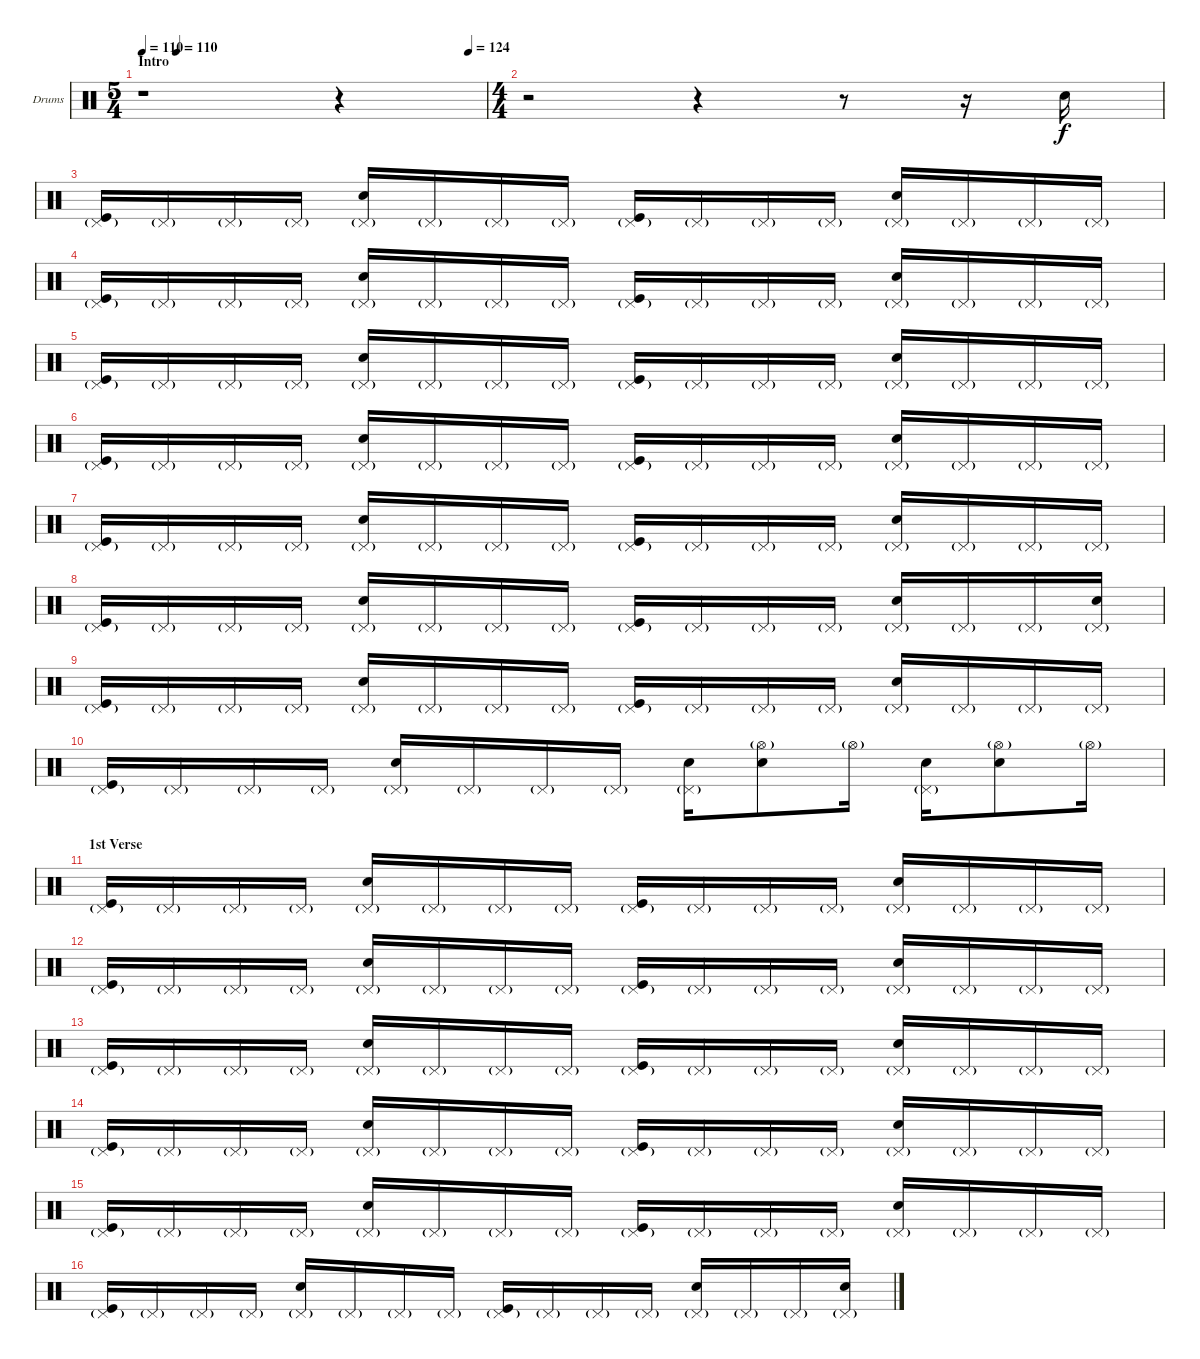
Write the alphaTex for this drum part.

\bracketExtendMode groupsimilarinstruments
\firstSystemTrackNameOrientation horizontal
\otherSystemsTrackNameOrientation horizontal
\track ("Drumkit" "Drums") {instrument percussion}
\staff {score}
\articulation defaults
\ts (5 4)
\section ("" "Intro")
\tempo 110
\tempo (110 0.1)
\tempo (124 0.95)
\clef neutral
\ks c
r.1{dy f} r.4 |
\ts (4 4)
r.2 r.4 r.8 r.16 "Snare (hit) 2".16 |
("Kick (hit)" "Pedal Hi-Hat (hit)"{g}).16 "Pedal Hi-Hat (hit)"{g}.16 "Pedal Hi-Hat (hit)"{g}.16 "Pedal Hi-Hat (hit)"{g}.16 ("Snare (hit) 2" "Pedal Hi-Hat (hit)"{g}).16 "Pedal Hi-Hat (hit)"{g}.16 "Pedal Hi-Hat (hit)"{g}.16 "Pedal Hi-Hat (hit)"{g}.16 ("Kick (hit)" "Pedal Hi-Hat (hit)"{g}).16 "Pedal Hi-Hat (hit)"{g}.16 "Pedal Hi-Hat (hit)"{g}.16 "Pedal Hi-Hat (hit)"{g}.16 ("Snare (hit) 2" "Pedal Hi-Hat (hit)"{g}).16 "Pedal Hi-Hat (hit)"{g}.16 "Pedal Hi-Hat (hit)"{g}.16 "Pedal Hi-Hat (hit)"{g}.16 |
("Kick (hit)" "Pedal Hi-Hat (hit)"{g}).16 "Pedal Hi-Hat (hit)"{g}.16 "Pedal Hi-Hat (hit)"{g}.16 "Pedal Hi-Hat (hit)"{g}.16 ("Snare (hit) 2" "Pedal Hi-Hat (hit)"{g}).16 "Pedal Hi-Hat (hit)"{g}.16 "Pedal Hi-Hat (hit)"{g}.16 "Pedal Hi-Hat (hit)"{g}.16 ("Kick (hit)" "Pedal Hi-Hat (hit)"{g}).16 "Pedal Hi-Hat (hit)"{g}.16 "Pedal Hi-Hat (hit)"{g}.16 "Pedal Hi-Hat (hit)"{g}.16 ("Snare (hit) 2" "Pedal Hi-Hat (hit)"{g}).16 "Pedal Hi-Hat (hit)"{g}.16 "Pedal Hi-Hat (hit)"{g}.16 "Pedal Hi-Hat (hit)"{g}.16 |
("Kick (hit)" "Pedal Hi-Hat (hit)"{g}).16 "Pedal Hi-Hat (hit)"{g}.16 "Pedal Hi-Hat (hit)"{g}.16 "Pedal Hi-Hat (hit)"{g}.16 ("Snare (hit) 2" "Pedal Hi-Hat (hit)"{g}).16 "Pedal Hi-Hat (hit)"{g}.16 "Pedal Hi-Hat (hit)"{g}.16 "Pedal Hi-Hat (hit)"{g}.16 ("Kick (hit)" "Pedal Hi-Hat (hit)"{g}).16 "Pedal Hi-Hat (hit)"{g}.16 "Pedal Hi-Hat (hit)"{g}.16 "Pedal Hi-Hat (hit)"{g}.16 ("Snare (hit) 2" "Pedal Hi-Hat (hit)"{g}).16 "Pedal Hi-Hat (hit)"{g}.16 "Pedal Hi-Hat (hit)"{g}.16 "Pedal Hi-Hat (hit)"{g}.16 |
("Kick (hit)" "Pedal Hi-Hat (hit)"{g}).16 "Pedal Hi-Hat (hit)"{g}.16 "Pedal Hi-Hat (hit)"{g}.16 "Pedal Hi-Hat (hit)"{g}.16 ("Snare (hit) 2" "Pedal Hi-Hat (hit)"{g}).16 "Pedal Hi-Hat (hit)"{g}.16 "Pedal Hi-Hat (hit)"{g}.16 "Pedal Hi-Hat (hit)"{g}.16 ("Kick (hit)" "Pedal Hi-Hat (hit)"{g}).16 "Pedal Hi-Hat (hit)"{g}.16 "Pedal Hi-Hat (hit)"{g}.16 "Pedal Hi-Hat (hit)"{g}.16 ("Snare (hit) 2" "Pedal Hi-Hat (hit)"{g}).16 "Pedal Hi-Hat (hit)"{g}.16 "Pedal Hi-Hat (hit)"{g}.16 "Pedal Hi-Hat (hit)"{g}.16 |
("Kick (hit)" "Pedal Hi-Hat (hit)"{g}).16 "Pedal Hi-Hat (hit)"{g}.16 "Pedal Hi-Hat (hit)"{g}.16 "Pedal Hi-Hat (hit)"{g}.16 ("Snare (hit) 2" "Pedal Hi-Hat (hit)"{g}).16 "Pedal Hi-Hat (hit)"{g}.16 "Pedal Hi-Hat (hit)"{g}.16 "Pedal Hi-Hat (hit)"{g}.16 ("Kick (hit)" "Pedal Hi-Hat (hit)"{g}).16 "Pedal Hi-Hat (hit)"{g}.16 "Pedal Hi-Hat (hit)"{g}.16 "Pedal Hi-Hat (hit)"{g}.16 ("Snare (hit) 2" "Pedal Hi-Hat (hit)"{g}).16 "Pedal Hi-Hat (hit)"{g}.16 "Pedal Hi-Hat (hit)"{g}.16 "Pedal Hi-Hat (hit)"{g}.16 |
("Kick (hit)" "Pedal Hi-Hat (hit)"{g}).16 "Pedal Hi-Hat (hit)"{g}.16 "Pedal Hi-Hat (hit)"{g}.16 "Pedal Hi-Hat (hit)"{g}.16 ("Snare (hit) 2" "Pedal Hi-Hat (hit)"{g}).16 "Pedal Hi-Hat (hit)"{g}.16 "Pedal Hi-Hat (hit)"{g}.16 "Pedal Hi-Hat (hit)"{g}.16 ("Kick (hit)" "Pedal Hi-Hat (hit)"{g}).16 "Pedal Hi-Hat (hit)"{g}.16 "Pedal Hi-Hat (hit)"{g}.16 "Pedal Hi-Hat (hit)"{g}.16 ("Snare (hit) 2" "Pedal Hi-Hat (hit)"{g}).16 "Pedal Hi-Hat (hit)"{g}.16 "Pedal Hi-Hat (hit)"{g}.16 ("Snare (hit) 2" "Pedal Hi-Hat (hit)"{g}).16 |
("Kick (hit)" "Pedal Hi-Hat (hit)"{g}).16 "Pedal Hi-Hat (hit)"{g}.16 "Pedal Hi-Hat (hit)"{g}.16 "Pedal Hi-Hat (hit)"{g}.16 ("Snare (hit) 2" "Pedal Hi-Hat (hit)"{g}).16 "Pedal Hi-Hat (hit)"{g}.16 "Pedal Hi-Hat (hit)"{g}.16 "Pedal Hi-Hat (hit)"{g}.16 ("Kick (hit)" "Pedal Hi-Hat (hit)"{g}).16 "Pedal Hi-Hat (hit)"{g}.16 "Pedal Hi-Hat (hit)"{g}.16 "Pedal Hi-Hat (hit)"{g}.16 ("Snare (hit) 2" "Pedal Hi-Hat (hit)"{g}).16 "Pedal Hi-Hat (hit)"{g}.16 "Pedal Hi-Hat (hit)"{g}.16 "Pedal Hi-Hat (hit)"{g}.16 |
("Kick (hit)" "Pedal Hi-Hat (hit)"{g}).16 "Pedal Hi-Hat (hit)"{g}.16 "Pedal Hi-Hat (hit)"{g}.16 "Pedal Hi-Hat (hit)"{g}.16 ("Snare (hit) 2" "Pedal Hi-Hat (hit)"{g}).16 "Pedal Hi-Hat (hit)"{g}.16 "Pedal Hi-Hat (hit)"{g}.16 "Pedal Hi-Hat (hit)"{g}.16 ("Snare (hit) 2" "Pedal Hi-Hat (hit)"{g}).16 ("Snare (hit) 2" "Hi-Hat (open)"{g}).8 "Hi-Hat (open)"{g}.16 ("Snare (hit) 2" "Pedal Hi-Hat (hit)"{g}).16 ("Snare (hit) 2" "Hi-Hat (open)"{g}).8 "Hi-Hat (open)"{g}.16 |
\section ("" "1st Verse")
("Kick (hit)" "Pedal Hi-Hat (hit)"{g}).16 "Pedal Hi-Hat (hit)"{g}.16 "Pedal Hi-Hat (hit)"{g}.16 "Pedal Hi-Hat (hit)"{g}.16 ("Snare (hit) 2" "Pedal Hi-Hat (hit)"{g}).16 "Pedal Hi-Hat (hit)"{g}.16 "Pedal Hi-Hat (hit)"{g}.16 "Pedal Hi-Hat (hit)"{g}.16 ("Kick (hit)" "Pedal Hi-Hat (hit)"{g}).16 "Pedal Hi-Hat (hit)"{g}.16 "Pedal Hi-Hat (hit)"{g}.16 "Pedal Hi-Hat (hit)"{g}.16 ("Snare (hit) 2" "Pedal Hi-Hat (hit)"{g}).16 "Pedal Hi-Hat (hit)"{g}.16 "Pedal Hi-Hat (hit)"{g}.16 "Pedal Hi-Hat (hit)"{g}.16 |
("Kick (hit)" "Pedal Hi-Hat (hit)"{g}).16 "Pedal Hi-Hat (hit)"{g}.16 "Pedal Hi-Hat (hit)"{g}.16 "Pedal Hi-Hat (hit)"{g}.16 ("Snare (hit) 2" "Pedal Hi-Hat (hit)"{g}).16 "Pedal Hi-Hat (hit)"{g}.16 "Pedal Hi-Hat (hit)"{g}.16 "Pedal Hi-Hat (hit)"{g}.16 ("Kick (hit)" "Pedal Hi-Hat (hit)"{g}).16 "Pedal Hi-Hat (hit)"{g}.16 "Pedal Hi-Hat (hit)"{g}.16 "Pedal Hi-Hat (hit)"{g}.16 ("Snare (hit) 2" "Pedal Hi-Hat (hit)"{g}).16 "Pedal Hi-Hat (hit)"{g}.16 "Pedal Hi-Hat (hit)"{g}.16 "Pedal Hi-Hat (hit)"{g}.16 |
("Kick (hit)" "Pedal Hi-Hat (hit)"{g}).16 "Pedal Hi-Hat (hit)"{g}.16 "Pedal Hi-Hat (hit)"{g}.16 "Pedal Hi-Hat (hit)"{g}.16 ("Snare (hit) 2" "Pedal Hi-Hat (hit)"{g}).16 "Pedal Hi-Hat (hit)"{g}.16 "Pedal Hi-Hat (hit)"{g}.16 "Pedal Hi-Hat (hit)"{g}.16 ("Kick (hit)" "Pedal Hi-Hat (hit)"{g}).16 "Pedal Hi-Hat (hit)"{g}.16 "Pedal Hi-Hat (hit)"{g}.16 "Pedal Hi-Hat (hit)"{g}.16 ("Snare (hit) 2" "Pedal Hi-Hat (hit)"{g}).16 "Pedal Hi-Hat (hit)"{g}.16 "Pedal Hi-Hat (hit)"{g}.16 "Pedal Hi-Hat (hit)"{g}.16 |
("Kick (hit)" "Pedal Hi-Hat (hit)"{g}).16 "Pedal Hi-Hat (hit)"{g}.16 "Pedal Hi-Hat (hit)"{g}.16 "Pedal Hi-Hat (hit)"{g}.16 ("Snare (hit) 2" "Pedal Hi-Hat (hit)"{g}).16 "Pedal Hi-Hat (hit)"{g}.16 "Pedal Hi-Hat (hit)"{g}.16 "Pedal Hi-Hat (hit)"{g}.16 ("Kick (hit)" "Pedal Hi-Hat (hit)"{g}).16 "Pedal Hi-Hat (hit)"{g}.16 "Pedal Hi-Hat (hit)"{g}.16 "Pedal Hi-Hat (hit)"{g}.16 ("Snare (hit) 2" "Pedal Hi-Hat (hit)"{g}).16 "Pedal Hi-Hat (hit)"{g}.16 "Pedal Hi-Hat (hit)"{g}.16 "Pedal Hi-Hat (hit)"{g}.16 |
("Kick (hit)" "Pedal Hi-Hat (hit)"{g}).16 "Pedal Hi-Hat (hit)"{g}.16 "Pedal Hi-Hat (hit)"{g}.16 "Pedal Hi-Hat (hit)"{g}.16 ("Snare (hit) 2" "Pedal Hi-Hat (hit)"{g}).16 "Pedal Hi-Hat (hit)"{g}.16 "Pedal Hi-Hat (hit)"{g}.16 "Pedal Hi-Hat (hit)"{g}.16 ("Kick (hit)" "Pedal Hi-Hat (hit)"{g}).16 "Pedal Hi-Hat (hit)"{g}.16 "Pedal Hi-Hat (hit)"{g}.16 "Pedal Hi-Hat (hit)"{g}.16 ("Snare (hit) 2" "Pedal Hi-Hat (hit)"{g}).16 "Pedal Hi-Hat (hit)"{g}.16 "Pedal Hi-Hat (hit)"{g}.16 "Pedal Hi-Hat (hit)"{g}.16 |
("Kick (hit)" "Pedal Hi-Hat (hit)"{g}).16 "Pedal Hi-Hat (hit)"{g}.16 "Pedal Hi-Hat (hit)"{g}.16 "Pedal Hi-Hat (hit)"{g}.16 ("Snare (hit) 2" "Pedal Hi-Hat (hit)"{g}).16 "Pedal Hi-Hat (hit)"{g}.16 "Pedal Hi-Hat (hit)"{g}.16 "Pedal Hi-Hat (hit)"{g}.16 ("Kick (hit)" "Pedal Hi-Hat (hit)"{g}).16 "Pedal Hi-Hat (hit)"{g}.16 "Pedal Hi-Hat (hit)"{g}.16 "Pedal Hi-Hat (hit)"{g}.16 ("Snare (hit) 2" "Pedal Hi-Hat (hit)"{g}).16 "Pedal Hi-Hat (hit)"{g}.16 "Pedal Hi-Hat (hit)"{g}.16 ("Snare (hit) 2" "Pedal Hi-Hat (hit)"{g}).16
